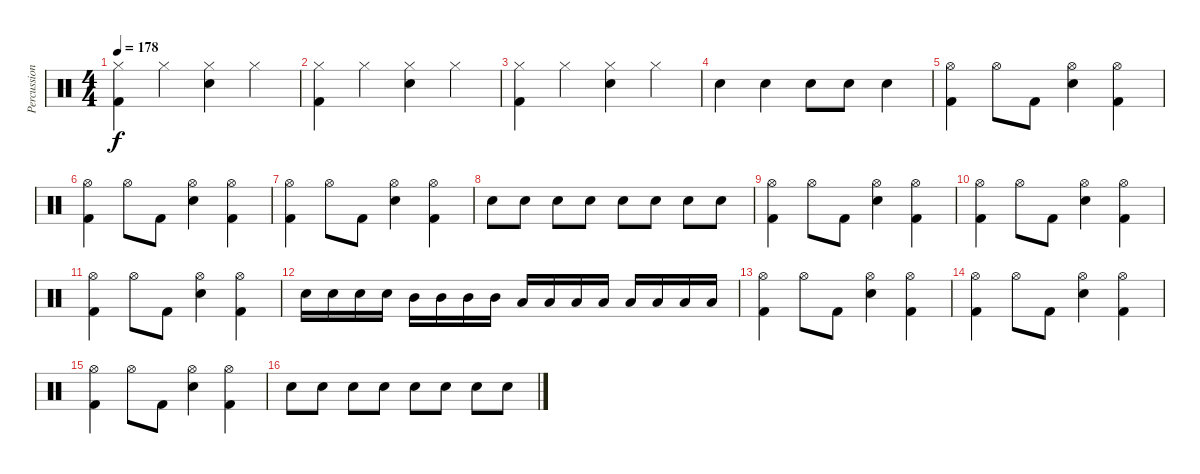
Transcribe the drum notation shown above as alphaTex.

\track ("Percussion" "Percussion") {instrument percussion}
\staff {score}
\articulation defaults
\ts (4 4)
\tempo 178
\clef neutral
\ks c
("Hi-Hat (closed)" "Kick (hit) 2").4{dy f} "Hi-Hat (closed)".4 ("Hi-Hat (closed)" "Electric Snare (hit)").4 "Hi-Hat (closed)".4 |
("Hi-Hat (closed)" "Kick (hit) 2").4 "Hi-Hat (closed)".4 ("Hi-Hat (closed)" "Electric Snare (hit)").4 "Hi-Hat (closed)".4 |
("Hi-Hat (closed)" "Kick (hit) 2").4 "Hi-Hat (closed)".4 ("Hi-Hat (closed)" "Electric Snare (hit)").4 "Hi-Hat (closed)".4 |
"Electric Snare (hit)".4 "Electric Snare (hit)".4 "Electric Snare (hit)".8 "Electric Snare (hit)".8 "Electric Snare (hit)".4 |
("Hi-Hat (open)" "Kick (hit) 2").4 "Hi-Hat (open)".8 "Kick (hit) 2".8 ("Hi-Hat (open)" "Electric Snare (hit)").4 ("Hi-Hat (open)" "Kick (hit) 2").4 |
("Hi-Hat (open)" "Kick (hit) 2").4 "Hi-Hat (open)".8 "Kick (hit) 2".8 ("Hi-Hat (open)" "Electric Snare (hit)").4 ("Hi-Hat (open)" "Kick (hit) 2").4 |
("Hi-Hat (open)" "Kick (hit) 2").4 "Hi-Hat (open)".8 "Kick (hit) 2".8 ("Hi-Hat (open)" "Electric Snare (hit)").4 ("Hi-Hat (open)" "Kick (hit) 2").4 |
"Electric Snare (hit)".8 "Electric Snare (hit)".8 "Electric Snare (hit)".8 "Electric Snare (hit)".8 "Electric Snare (hit)".8 "Electric Snare (hit)".8 "Electric Snare (hit)".8 "Electric Snare (hit)".8 |
("Hi-Hat (open)" "Kick (hit) 2").4 "Hi-Hat (open)".8 "Kick (hit) 2".8 ("Hi-Hat (open)" "Electric Snare (hit)").4 ("Hi-Hat (open)" "Kick (hit) 2").4 |
("Hi-Hat (open)" "Kick (hit) 2").4 "Hi-Hat (open)".8 "Kick (hit) 2".8 ("Hi-Hat (open)" "Electric Snare (hit)").4 ("Hi-Hat (open)" "Kick (hit) 2").4 |
("Hi-Hat (open)" "Kick (hit) 2").4 "Hi-Hat (open)".8 "Kick (hit) 2".8 ("Hi-Hat (open)" "Electric Snare (hit)").4 ("Hi-Hat (open)" "Kick (hit) 2").4 |
"Electric Snare (hit)".16 "Electric Snare (hit)".16 "Electric Snare (hit)".16 "Electric Snare (hit)".16 "Mid Tom (hit)".16 "Mid Tom (hit)".16 "Mid Tom (hit)".16 "Mid Tom (hit)".16 "Low Tom (hit)".16 "Low Tom (hit)".16 "Low Tom (hit)".16 "Low Tom (hit)".16 "Low Floor Tom (hit)".16 "Low Floor Tom (hit)".16 "Low Floor Tom (hit)".16 "Low Floor Tom (hit)".16 |
("Hi-Hat (open)" "Kick (hit) 2").4 "Hi-Hat (open)".8 "Kick (hit) 2".8 ("Hi-Hat (open)" "Electric Snare (hit)").4 ("Hi-Hat (open)" "Kick (hit) 2").4 |
("Hi-Hat (open)" "Kick (hit) 2").4 "Hi-Hat (open)".8 "Kick (hit) 2".8 ("Hi-Hat (open)" "Electric Snare (hit)").4 ("Hi-Hat (open)" "Kick (hit) 2").4 |
("Hi-Hat (open)" "Kick (hit) 2").4 "Hi-Hat (open)".8 "Kick (hit) 2".8 ("Hi-Hat (open)" "Electric Snare (hit)").4 ("Hi-Hat (open)" "Kick (hit) 2").4 |
"Electric Snare (hit)".8 "Electric Snare (hit)".8 "Electric Snare (hit)".8 "Electric Snare (hit)".8 "Electric Snare (hit)".8 "Electric Snare (hit)".8 "Electric Snare (hit)".8 "Electric Snare (hit)".8
